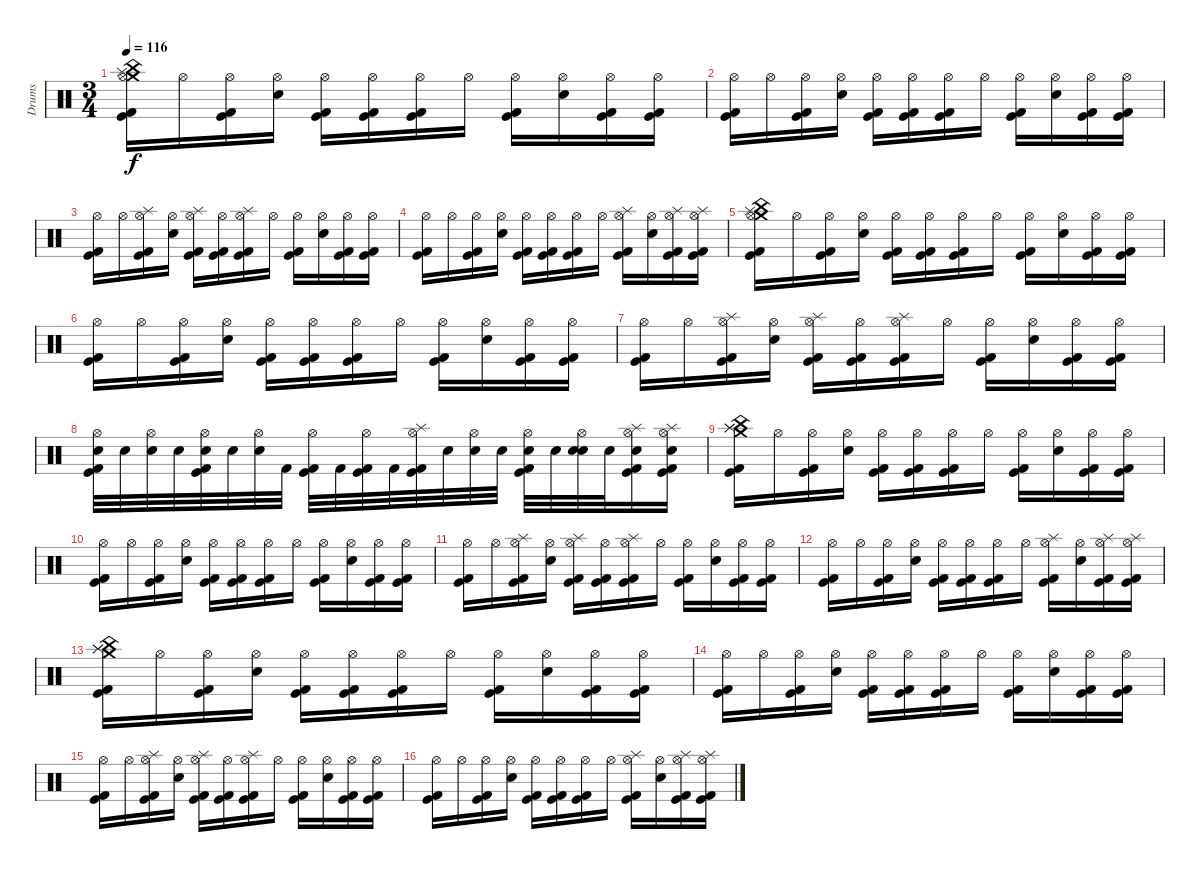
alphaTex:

\track ("Drums" "Drums") {instrument percussion}
\staff {score}
\articulation defaults
\ts (3 4)
\tempo 116
\clef neutral
\ks c
("Crash medium (hit)" "China (hit)" "Splash (hit)" "Kick (hit)" "Kick (hit) 2" "Hi-Hat (open)").16{dy f} "Hi-Hat (open)".16 ("Kick (hit)" "Kick (hit) 2" "Hi-Hat (open)").16 ("Electric Snare (hit)" "Hi-Hat (open)").16 ("Kick (hit) 2" "Kick (hit)" "Hi-Hat (open)").16 ("Kick (hit) 2" "Kick (hit)" "Hi-Hat (open)").16 ("Kick (hit)" "Kick (hit) 2" "Hi-Hat (open)").16 "Hi-Hat (open)".16 ("Kick (hit) 2" "Kick (hit)" "Hi-Hat (open)").16 ("Electric Snare (hit)" "Hi-Hat (open)").16 ("Kick (hit) 2" "Kick (hit)" "Hi-Hat (open)").16 ("Kick (hit) 2" "Kick (hit)" "Hi-Hat (open)").16 |
("Kick (hit) 2" "Kick (hit)" "Hi-Hat (open)").16 "Hi-Hat (open)".16 ("Kick (hit) 2" "Kick (hit)" "Hi-Hat (open)").16 ("Electric Snare (hit)" "Hi-Hat (open)").16 ("Kick (hit) 2" "Kick (hit)" "Hi-Hat (open)").16 ("Kick (hit) 2" "Kick (hit)" "Hi-Hat (open)").16 ("Kick (hit) 2" "Kick (hit)" "Hi-Hat (open)").16 "Hi-Hat (open)".16 ("Kick (hit) 2" "Kick (hit)" "Hi-Hat (open)").16 ("Electric Snare (hit)" "Hi-Hat (open)").16 ("Kick (hit) 2" "Kick (hit)" "Hi-Hat (open)").16 ("Kick (hit) 2" "Kick (hit)" "Hi-Hat (open)").16 |
("Kick (hit)" "Kick (hit) 2" "Hi-Hat (open)").16 "Hi-Hat (open)".16 ("Splash (hit)" "Kick (hit)" "Kick (hit) 2" "Hi-Hat (open)").16 ("Electric Snare (hit)" "Hi-Hat (open)").16 ("Splash (hit)" "Kick (hit) 2" "Kick (hit)" "Hi-Hat (open)").16 ("Kick (hit) 2" "Kick (hit)" "Hi-Hat (open)").16 ("Splash (hit)" "Kick (hit)" "Kick (hit) 2" "Hi-Hat (open)").16 "Hi-Hat (open)".16 ("Kick (hit) 2" "Kick (hit)" "Hi-Hat (open)").16 ("Electric Snare (hit)" "Hi-Hat (open)").16 ("Kick (hit) 2" "Kick (hit)" "Hi-Hat (open)").16 ("Kick (hit) 2" "Kick (hit)" "Hi-Hat (open)").16 |
("Kick (hit) 2" "Kick (hit)" "Hi-Hat (open)").16 "Hi-Hat (open)".16 ("Kick (hit) 2" "Kick (hit)" "Hi-Hat (open)").16 ("Electric Snare (hit)" "Hi-Hat (open)").16 ("Kick (hit) 2" "Kick (hit)" "Hi-Hat (open)").16 ("Kick (hit) 2" "Kick (hit)" "Hi-Hat (open)").16 ("Kick (hit) 2" "Kick (hit)" "Hi-Hat (open)").16 "Hi-Hat (open)".16 ("Splash (hit)" "Kick (hit) 2" "Kick (hit)" "Hi-Hat (open)").16 ("Electric Snare (hit)" "Hi-Hat (open)").16 ("Splash (hit)" "Kick (hit) 2" "Kick (hit)" "Hi-Hat (open)").16 ("Splash (hit)" "Kick (hit) 2" "Kick (hit)" "Hi-Hat (open)").16 |
("Crash medium (hit)" "China (hit)" "Splash (hit)" "Kick (hit)" "Kick (hit) 2" "Hi-Hat (open)").16 "Hi-Hat (open)".16 ("Kick (hit)" "Kick (hit) 2" "Hi-Hat (open)").16 ("Electric Snare (hit)" "Hi-Hat (open)").16 ("Kick (hit) 2" "Kick (hit)" "Hi-Hat (open)").16 ("Kick (hit) 2" "Kick (hit)" "Hi-Hat (open)").16 ("Kick (hit)" "Kick (hit) 2" "Hi-Hat (open)").16 "Hi-Hat (open)".16 ("Kick (hit) 2" "Kick (hit)" "Hi-Hat (open)").16 ("Electric Snare (hit)" "Hi-Hat (open)").16 ("Kick (hit) 2" "Kick (hit)" "Hi-Hat (open)").16 ("Kick (hit) 2" "Kick (hit)" "Hi-Hat (open)").16 |
("Kick (hit) 2" "Kick (hit)" "Hi-Hat (open)").16 "Hi-Hat (open)".16 ("Kick (hit) 2" "Kick (hit)" "Hi-Hat (open)").16 ("Electric Snare (hit)" "Hi-Hat (open)").16 ("Kick (hit) 2" "Kick (hit)" "Hi-Hat (open)").16 ("Kick (hit) 2" "Kick (hit)" "Hi-Hat (open)").16 ("Kick (hit) 2" "Kick (hit)" "Hi-Hat (open)").16 "Hi-Hat (open)".16 ("Kick (hit) 2" "Kick (hit)" "Hi-Hat (open)").16 ("Electric Snare (hit)" "Hi-Hat (open)").16 ("Kick (hit) 2" "Kick (hit)" "Hi-Hat (open)").16 ("Kick (hit) 2" "Kick (hit)" "Hi-Hat (open)").16 |
("Kick (hit)" "Kick (hit) 2" "Hi-Hat (open)").16 "Hi-Hat (open)".16 ("Splash (hit)" "Kick (hit)" "Kick (hit) 2" "Hi-Hat (open)").16 ("Electric Snare (hit)" "Hi-Hat (open)").16 ("Splash (hit)" "Kick (hit) 2" "Kick (hit)" "Hi-Hat (open)").16 ("Kick (hit) 2" "Kick (hit)" "Hi-Hat (open)").16 ("Splash (hit)" "Kick (hit)" "Kick (hit) 2" "Hi-Hat (open)").16 "Hi-Hat (open)".16 ("Kick (hit) 2" "Kick (hit)" "Hi-Hat (open)").16 ("Electric Snare (hit)" "Hi-Hat (open)").16 ("Kick (hit) 2" "Kick (hit)" "Hi-Hat (open)").16 ("Kick (hit) 2" "Kick (hit)" "Hi-Hat (open)").16 |
("Electric Snare (hit)" "Kick (hit) 2" "Kick (hit)" "Hi-Hat (open)").32 "Electric Snare (hit)".32 ("Electric Snare (hit)" "Hi-Hat (open)").32 "Electric Snare (hit)".32 ("Electric Snare (hit)" "Kick (hit) 2" "Kick (hit)" "Hi-Hat (open)").32 "Electric Snare (hit)".32 ("Electric Snare (hit)" "Hi-Hat (open)").32 "Kick (hit) 2".32 ("Kick (hit) 2" "Kick (hit)" "Hi-Hat (open)").32 "Kick (hit) 2".32 ("Kick (hit) 2" "Kick (hit)" "Hi-Hat (open)").32 "Kick (hit) 2".32 ("Splash (hit)" "Kick (hit) 2" "Kick (hit)" "Hi-Hat (open)").32 "Snare (hit) 2".32 ("Snare (hit) 2" "Hi-Hat (open)").32 "Snare (hit) 2".32 ("Snare (hit) 2" "Kick (hit) 2" "Kick (hit)" "Hi-Hat (open)").32 "Snare (hit) 2".32 ("Snare (hit) 2" "Electric Snare (hit)" "Hi-Hat (open)").32 "Snare (hit) 2".32 ("Electric Snare (hit)" "Splash (hit)" "Kick (hit) 2" "Kick (hit)" "Hi-Hat (open)").16 ("Electric Snare (hit)" "Splash (hit)" "Kick (hit) 2" "Kick (hit)" "Hi-Hat (open)").16 |
("Splash (hit)" "Crash medium (hit)" "China (hit)" "Splash (hit)" "Kick (hit)" "Kick (hit) 2").16 "Hi-Hat (open)".16 ("Kick (hit)" "Kick (hit) 2" "Hi-Hat (open)").16 ("Electric Snare (hit)" "Hi-Hat (open)").16 ("Kick (hit) 2" "Kick (hit)" "Hi-Hat (open)").16 ("Kick (hit) 2" "Kick (hit)" "Hi-Hat (open)").16 ("Kick (hit)" "Kick (hit) 2" "Hi-Hat (open)").16 "Hi-Hat (open)".16 ("Kick (hit) 2" "Kick (hit)" "Hi-Hat (open)").16 ("Electric Snare (hit)" "Hi-Hat (open)").16 ("Kick (hit) 2" "Kick (hit)" "Hi-Hat (open)").16 ("Kick (hit) 2" "Kick (hit)" "Hi-Hat (open)").16 |
("Kick (hit) 2" "Kick (hit)" "Hi-Hat (open)").16 "Hi-Hat (open)".16 ("Kick (hit) 2" "Kick (hit)" "Hi-Hat (open)").16 ("Electric Snare (hit)" "Hi-Hat (open)").16 ("Kick (hit) 2" "Kick (hit)" "Hi-Hat (open)").16 ("Kick (hit) 2" "Kick (hit)" "Hi-Hat (open)").16 ("Kick (hit) 2" "Kick (hit)" "Hi-Hat (open)").16 "Hi-Hat (open)".16 ("Kick (hit) 2" "Kick (hit)" "Hi-Hat (open)").16 ("Electric Snare (hit)" "Hi-Hat (open)").16 ("Kick (hit) 2" "Kick (hit)" "Hi-Hat (open)").16 ("Kick (hit) 2" "Kick (hit)" "Hi-Hat (open)").16 |
("Kick (hit)" "Kick (hit) 2" "Hi-Hat (open)").16 "Hi-Hat (open)".16 ("Splash (hit)" "Kick (hit)" "Kick (hit) 2" "Hi-Hat (open)").16 ("Electric Snare (hit)" "Hi-Hat (open)").16 ("Splash (hit)" "Kick (hit) 2" "Kick (hit)" "Hi-Hat (open)").16 ("Kick (hit) 2" "Kick (hit)" "Hi-Hat (open)").16 ("Splash (hit)" "Kick (hit)" "Kick (hit) 2" "Hi-Hat (open)").16 "Hi-Hat (open)".16 ("Kick (hit) 2" "Kick (hit)" "Hi-Hat (open)").16 ("Electric Snare (hit)" "Hi-Hat (open)").16 ("Kick (hit) 2" "Kick (hit)" "Hi-Hat (open)").16 ("Kick (hit) 2" "Kick (hit)" "Hi-Hat (open)").16 |
("Kick (hit) 2" "Kick (hit)" "Hi-Hat (open)").16 "Hi-Hat (open)".16 ("Kick (hit) 2" "Kick (hit)" "Hi-Hat (open)").16 ("Electric Snare (hit)" "Hi-Hat (open)").16 ("Kick (hit) 2" "Kick (hit)" "Hi-Hat (open)").16 ("Kick (hit) 2" "Kick (hit)" "Hi-Hat (open)").16 ("Kick (hit) 2" "Kick (hit)" "Hi-Hat (open)").16 "Hi-Hat (open)".16 ("Splash (hit)" "Kick (hit) 2" "Kick (hit)" "Hi-Hat (open)").16 ("Electric Snare (hit)" "Hi-Hat (open)").16 ("Splash (hit)" "Kick (hit) 2" "Kick (hit)" "Hi-Hat (open)").16 ("Splash (hit)" "Kick (hit) 2" "Kick (hit)" "Hi-Hat (open)").16 |
("Splash (hit)" "Crash medium (hit)" "China (hit)" "Splash (hit)" "Kick (hit)" "Kick (hit) 2").16 "Hi-Hat (open)".16 ("Kick (hit)" "Kick (hit) 2" "Hi-Hat (open)").16 ("Electric Snare (hit)" "Hi-Hat (open)").16 ("Kick (hit) 2" "Kick (hit)" "Hi-Hat (open)").16 ("Kick (hit) 2" "Kick (hit)" "Hi-Hat (open)").16 ("Kick (hit)" "Kick (hit) 2" "Hi-Hat (open)").16 "Hi-Hat (open)".16 ("Kick (hit) 2" "Kick (hit)" "Hi-Hat (open)").16 ("Electric Snare (hit)" "Hi-Hat (open)").16 ("Kick (hit) 2" "Kick (hit)" "Hi-Hat (open)").16 ("Kick (hit) 2" "Kick (hit)" "Hi-Hat (open)").16 |
("Kick (hit) 2" "Kick (hit)" "Hi-Hat (open)").16 "Hi-Hat (open)".16 ("Kick (hit) 2" "Kick (hit)" "Hi-Hat (open)").16 ("Electric Snare (hit)" "Hi-Hat (open)").16 ("Kick (hit) 2" "Kick (hit)" "Hi-Hat (open)").16 ("Kick (hit) 2" "Kick (hit)" "Hi-Hat (open)").16 ("Kick (hit) 2" "Kick (hit)" "Hi-Hat (open)").16 "Hi-Hat (open)".16 ("Kick (hit) 2" "Kick (hit)" "Hi-Hat (open)").16 ("Electric Snare (hit)" "Hi-Hat (open)").16 ("Kick (hit) 2" "Kick (hit)" "Hi-Hat (open)").16 ("Kick (hit) 2" "Kick (hit)" "Hi-Hat (open)").16 |
("Kick (hit)" "Kick (hit) 2" "Hi-Hat (open)").16 "Hi-Hat (open)".16 ("Splash (hit)" "Kick (hit)" "Kick (hit) 2" "Hi-Hat (open)").16 ("Electric Snare (hit)" "Hi-Hat (open)").16 ("Splash (hit)" "Kick (hit) 2" "Kick (hit)" "Hi-Hat (open)").16 ("Kick (hit) 2" "Kick (hit)" "Hi-Hat (open)").16 ("Splash (hit)" "Kick (hit)" "Kick (hit) 2" "Hi-Hat (open)").16 "Hi-Hat (open)".16 ("Kick (hit) 2" "Kick (hit)" "Hi-Hat (open)").16 ("Electric Snare (hit)" "Hi-Hat (open)").16 ("Kick (hit) 2" "Kick (hit)" "Hi-Hat (open)").16 ("Kick (hit) 2" "Kick (hit)" "Hi-Hat (open)").16 |
("Kick (hit) 2" "Kick (hit)" "Hi-Hat (open)").16 "Hi-Hat (open)".16 ("Kick (hit) 2" "Kick (hit)" "Hi-Hat (open)").16 ("Electric Snare (hit)" "Hi-Hat (open)").16 ("Kick (hit) 2" "Kick (hit)" "Hi-Hat (open)").16 ("Kick (hit) 2" "Kick (hit)" "Hi-Hat (open)").16 ("Kick (hit) 2" "Kick (hit)" "Hi-Hat (open)").16 "Hi-Hat (open)".16 ("Splash (hit)" "Kick (hit) 2" "Kick (hit)" "Hi-Hat (open)").16 ("Electric Snare (hit)" "Hi-Hat (open)").16 ("Splash (hit)" "Kick (hit) 2" "Kick (hit)" "Hi-Hat (open)").16 ("Splash (hit)" "Kick (hit) 2" "Kick (hit)" "Hi-Hat (open)").16
